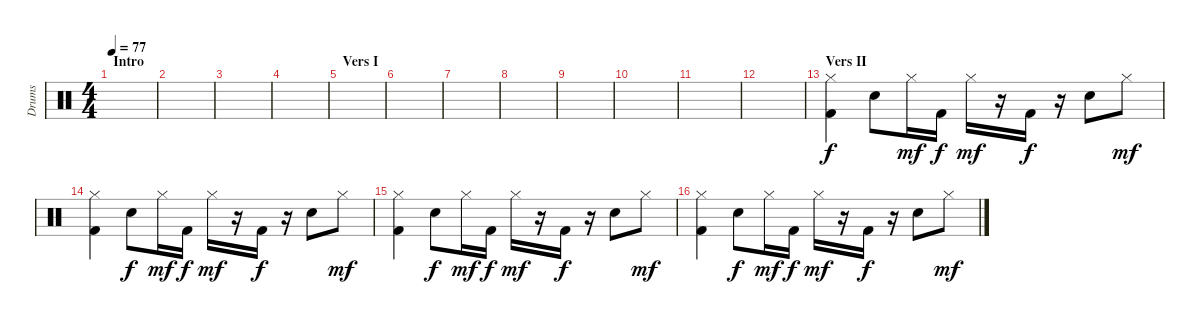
\track ("Drums" "Drums") {instrument percussion}
\staff {score}
\articulation defaults
\ts (4 4)
\section ("" "Intro")
\tempo 77
\clef neutral
\ks c
|
|
|
|
\section ("" "Vers I")
|
|
|
|
|
|
|
|
\section ("" "Vers II")
("Hi-Hat (closed)" "Kick (hit) 2").4 "Hand Clap (hit)".8{dy f} "Hi-Hat (closed)".16{dy mf} "Kick (hit) 2".16{dy f} "Hi-Hat (closed)".16{dy mf} r.16 "Kick (hit) 2".16{dy f} r.16 "Hand Clap (hit)".8 "Hi-Hat (closed)".8{dy mf} |
("Hi-Hat (closed)" "Kick (hit) 2").4 "Hand Clap (hit)".8{dy f} "Hi-Hat (closed)".16{dy mf} "Kick (hit) 2".16{dy f} "Hi-Hat (closed)".16{dy mf} r.16 "Kick (hit) 2".16{dy f} r.16 "Hand Clap (hit)".8 "Hi-Hat (closed)".8{dy mf} |
("Hi-Hat (closed)" "Kick (hit) 2").4 "Hand Clap (hit)".8{dy f} "Hi-Hat (closed)".16{dy mf} "Kick (hit) 2".16{dy f} "Hi-Hat (closed)".16{dy mf} r.16 "Kick (hit) 2".16{dy f} r.16 "Hand Clap (hit)".8 "Hi-Hat (closed)".8{dy mf} |
("Hi-Hat (closed)" "Kick (hit) 2").4 "Hand Clap (hit)".8{dy f} "Hi-Hat (closed)".16{dy mf} "Kick (hit) 2".16{dy f} "Hi-Hat (closed)".16{dy mf} r.16 "Kick (hit) 2".16{dy f} r.16 "Hand Clap (hit)".8 "Hi-Hat (closed)".8{dy mf}
